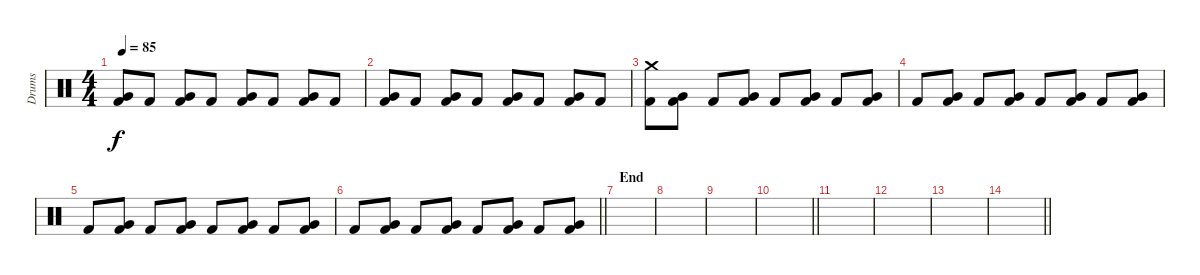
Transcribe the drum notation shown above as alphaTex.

\track ("Drums" "Drums") {instrument percussion}
\staff {score}
\articulation defaults
\ts (4 4)
\tempo 85
\clef neutral
\ks c
("Very Low Tom (hit)" "Kick (hit) 2").8{dy f} "Kick (hit) 2".8 ("Very Low Tom (hit)" "Kick (hit) 2").8 "Kick (hit) 2".8 ("Very Low Tom (hit)" "Kick (hit) 2").8 "Kick (hit) 2".8 ("Very Low Tom (hit)" "Kick (hit) 2").8 "Kick (hit) 2".8 |
("Very Low Tom (hit)" "Kick (hit) 2").8 "Kick (hit) 2".8 ("Very Low Tom (hit)" "Kick (hit) 2").8 "Kick (hit) 2".8 ("Very Low Tom (hit)" "Kick (hit) 2").8 "Kick (hit) 2".8 ("Very Low Tom (hit)" "Kick (hit) 2").8 "Kick (hit) 2".8 |
("Crash medium (hit)" "Kick (hit) 2").8 ("Very Low Tom (hit)" "Kick (hit) 2").8 "Kick (hit) 2".8 ("Very Low Tom (hit)" "Kick (hit) 2").8 "Kick (hit) 2".8 ("Very Low Tom (hit)" "Kick (hit) 2").8 "Kick (hit) 2".8 ("Very Low Tom (hit)" "Kick (hit) 2").8 |
"Kick (hit) 2".8 ("Very Low Tom (hit)" "Kick (hit) 2").8 "Kick (hit) 2".8 ("Very Low Tom (hit)" "Kick (hit) 2").8 "Kick (hit) 2".8 ("Very Low Tom (hit)" "Kick (hit) 2").8 "Kick (hit) 2".8 ("Very Low Tom (hit)" "Kick (hit) 2").8 |
"Kick (hit) 2".8 ("Very Low Tom (hit)" "Kick (hit) 2").8 "Kick (hit) 2".8 ("Very Low Tom (hit)" "Kick (hit) 2").8 "Kick (hit) 2".8 ("Very Low Tom (hit)" "Kick (hit) 2").8 "Kick (hit) 2".8 ("Very Low Tom (hit)" "Kick (hit) 2").8 |
\barLineRight lightlight "Kick (hit) 2".8
("Very Low Tom (hit)" "Kick (hit) 2").8 "Kick (hit) 2".8 ("Very Low Tom (hit)" "Kick (hit) 2").8 "Kick (hit) 2".8 ("Very Low Tom (hit)" "Kick (hit) 2").8 "Kick (hit) 2".8 ("Very Low Tom (hit)" "Kick (hit) 2").8 |
\section ("" "End")
|
|
|
\barLineRight lightlight
|
|
|
|
\barLineRight lightlight
